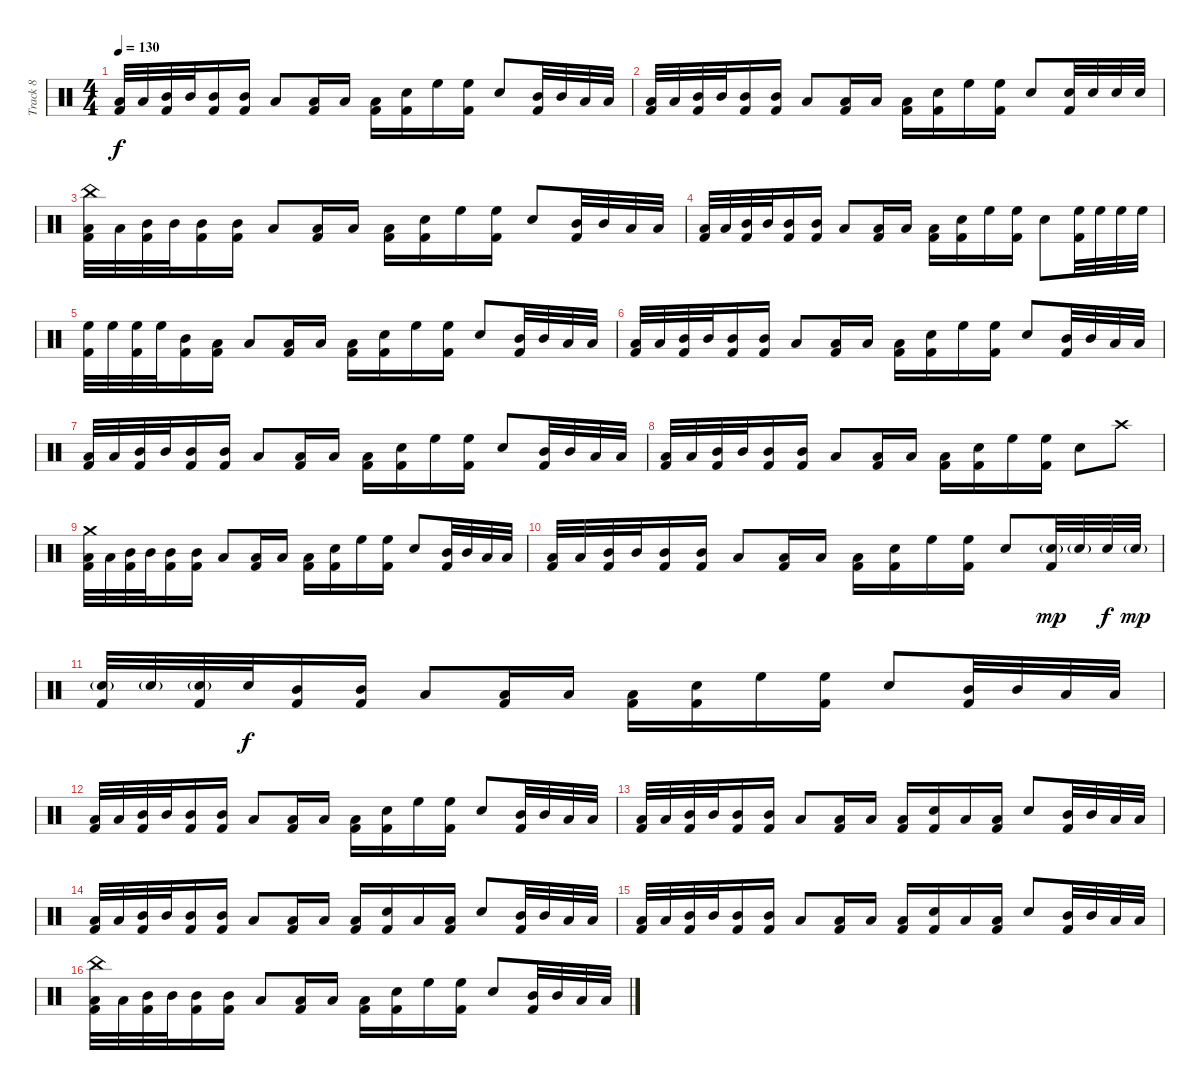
\track ("Track 8" "Track 8") {instrument percussion}
\staff {score}
\articulation defaults
\ts (4 4)
\tempo 130
\clef neutral
\ks c
("Low Tom (hit)" "Kick (hit) 2").32{dy f} "Low Tom (hit)".32 ("Mid Tom (hit)" "Kick (hit) 2").32 "Mid Tom (hit)".32 ("Mid Tom (hit)" "Kick (hit) 2").16 ("Mid Tom (hit)" "Kick (hit) 2").16 "Low Floor Tom (hit)".8 ("Low Floor Tom (hit)" "Kick (hit) 2").16 "Low Tom (hit)".16 ("Low Tom (hit)" "Kick (hit) 2").16 ("Snare (hit) 2" "Kick (hit) 2").16 "High Floor Tom (hit)".16 ("High Floor Tom (hit)" "Kick (hit) 2").16 "Snare (hit) 2".8 ("Mid Tom (hit)" "Kick (hit) 2").32 "Mid Tom (hit)".32 "Low Tom (hit)".32 "Low Tom (hit)".32 |
("Low Tom (hit)" "Kick (hit) 2").32 "Low Tom (hit)".32 ("Mid Tom (hit)" "Kick (hit) 2").32 "Mid Tom (hit)".32 ("Mid Tom (hit)" "Kick (hit) 2").16 ("Mid Tom (hit)" "Kick (hit) 2").16 "Low Floor Tom (hit)".8 ("Low Floor Tom (hit)" "Kick (hit) 2").16 "Low Tom (hit)".16 ("Low Tom (hit)" "Kick (hit) 2").16 ("Snare (hit) 2" "Kick (hit) 2").16 "High Floor Tom (hit)".16 ("High Floor Tom (hit)" "Kick (hit) 2").16 "Snare (hit) 2".8 ("Snare (hit) 2" "Kick (hit) 2").32 "Snare (hit) 2".32 "Snare (hit) 2".32 "Snare (hit) 2".32 |
("China (hit)" "Low Tom (hit)" "Kick (hit) 2").32 "Low Tom (hit)".32 ("Mid Tom (hit)" "Kick (hit) 2").32 "Mid Tom (hit)".32 ("Mid Tom (hit)" "Kick (hit) 2").16 ("Mid Tom (hit)" "Kick (hit) 2").16 "Low Floor Tom (hit)".8 ("Low Floor Tom (hit)" "Kick (hit) 2").16 "Low Tom (hit)".16 ("Low Tom (hit)" "Kick (hit) 2").16 ("Snare (hit) 2" "Kick (hit) 2").16 "High Floor Tom (hit)".16 ("High Floor Tom (hit)" "Kick (hit) 2").16 "Snare (hit) 2".8 ("Mid Tom (hit)" "Kick (hit) 2").32 "Mid Tom (hit)".32 "Low Tom (hit)".32 "Low Tom (hit)".32 |
("Low Tom (hit)" "Kick (hit) 2").32 "Low Tom (hit)".32 ("Mid Tom (hit)" "Kick (hit) 2").32 "Mid Tom (hit)".32 ("Mid Tom (hit)" "Kick (hit) 2").16 ("Mid Tom (hit)" "Kick (hit) 2").16 "Low Floor Tom (hit)".8 ("Low Floor Tom (hit)" "Kick (hit) 2").16 "Low Tom (hit)".16 ("Low Tom (hit)" "Kick (hit) 2").16 ("Snare (hit) 2" "Kick (hit) 2").16 "High Floor Tom (hit)".16 ("High Floor Tom (hit)" "Kick (hit) 2").16 "Snare (hit) 2".8 ("High Floor Tom (hit)" "Kick (hit) 2").32 "High Floor Tom (hit)".32 "High Floor Tom (hit)".32 "High Floor Tom (hit)".32 |
("High Floor Tom (hit)" "Kick (hit) 2").32 "High Floor Tom (hit)".32 ("High Floor Tom (hit)" "Kick (hit) 2").32 "High Floor Tom (hit)".32 ("Mid Tom (hit)" "Kick (hit) 2").16 ("Low Tom (hit)" "Kick (hit) 2").16 "Low Floor Tom (hit)".8 ("Low Floor Tom (hit)" "Kick (hit) 2").16 "Low Tom (hit)".16 ("Low Tom (hit)" "Kick (hit) 2").16 ("Snare (hit) 2" "Kick (hit) 2").16 "High Floor Tom (hit)".16 ("High Floor Tom (hit)" "Kick (hit) 2").16 "Snare (hit) 2".8 ("Mid Tom (hit)" "Kick (hit) 2").32 "Mid Tom (hit)".32 "Low Tom (hit)".32 "Low Tom (hit)".32 |
("Low Tom (hit)" "Kick (hit) 2").32 "Low Tom (hit)".32 ("Mid Tom (hit)" "Kick (hit) 2").32 "Mid Tom (hit)".32 ("Mid Tom (hit)" "Kick (hit) 2").16 ("Mid Tom (hit)" "Kick (hit) 2").16 "Low Floor Tom (hit)".8 ("Low Floor Tom (hit)" "Kick (hit) 2").16 "Low Tom (hit)".16 ("Low Tom (hit)" "Kick (hit) 2").16 ("Snare (hit) 2" "Kick (hit) 2").16 "High Floor Tom (hit)".16 ("High Floor Tom (hit)" "Kick (hit) 2").16 "Snare (hit) 2".8 ("Mid Tom (hit)" "Kick (hit) 2").32 "Mid Tom (hit)".32 "Low Tom (hit)".32 "Low Tom (hit)".32 |
("Low Tom (hit)" "Kick (hit) 2").32 "Low Tom (hit)".32 ("Mid Tom (hit)" "Kick (hit) 2").32 "Mid Tom (hit)".32 ("Mid Tom (hit)" "Kick (hit) 2").16 ("Mid Tom (hit)" "Kick (hit) 2").16 "Low Floor Tom (hit)".8 ("Low Floor Tom (hit)" "Kick (hit) 2").16 "Low Tom (hit)".16 ("Low Tom (hit)" "Kick (hit) 2").16 ("Snare (hit) 2" "Kick (hit) 2").16 "High Floor Tom (hit)".16 ("High Floor Tom (hit)" "Kick (hit) 2").16 "Snare (hit) 2".8 ("Mid Tom (hit)" "Kick (hit) 2").32 "Mid Tom (hit)".32 "Low Tom (hit)".32 "Low Tom (hit)".32 |
("Low Tom (hit)" "Kick (hit) 2").32 "Low Tom (hit)".32 ("Mid Tom (hit)" "Kick (hit) 2").32 "Mid Tom (hit)".32 ("Mid Tom (hit)" "Kick (hit) 2").16 ("Mid Tom (hit)" "Kick (hit) 2").16 "Low Floor Tom (hit)".8 ("Low Floor Tom (hit)" "Kick (hit) 2").16 "Low Tom (hit)".16 ("Low Tom (hit)" "Kick (hit) 2").16 ("Snare (hit) 2" "Kick (hit) 2").16 "High Floor Tom (hit)".16 ("High Floor Tom (hit)" "Kick (hit) 2").16 "Snare (hit) 2".8 "Crash high (hit)".8 |
("Crash medium (hit)" "Low Tom (hit)" "Kick (hit) 2").32 "Low Tom (hit)".32 ("Mid Tom (hit)" "Kick (hit) 2").32 "Mid Tom (hit)".32 ("Mid Tom (hit)" "Kick (hit) 2").16 ("Mid Tom (hit)" "Kick (hit) 2").16 "Low Floor Tom (hit)".8 ("Low Floor Tom (hit)" "Kick (hit) 2").16 "Low Tom (hit)".16 ("Low Tom (hit)" "Kick (hit) 2").16 ("Snare (hit) 2" "Kick (hit) 2").16 "High Floor Tom (hit)".16 ("High Floor Tom (hit)" "Kick (hit) 2").16 "Snare (hit) 2".8 ("Mid Tom (hit)" "Kick (hit) 2").32 "Mid Tom (hit)".32 "Low Tom (hit)".32 "Low Tom (hit)".32 |
("Low Tom (hit)" "Kick (hit) 2").32 "Low Tom (hit)".32 ("Mid Tom (hit)" "Kick (hit) 2").32 "Mid Tom (hit)".32 ("Mid Tom (hit)" "Kick (hit) 2").16 ("Mid Tom (hit)" "Kick (hit) 2").16 "Low Floor Tom (hit)".8 ("Low Floor Tom (hit)" "Kick (hit) 2").16 "Low Tom (hit)".16 ("Low Tom (hit)" "Kick (hit) 2").16 ("Snare (hit) 2" "Kick (hit) 2").16 "High Floor Tom (hit)".16 ("High Floor Tom (hit)" "Kick (hit) 2").16 "Snare (hit) 2".8 ("Snare (hit) 2"{g} "Kick (hit) 2").32{dy mp} "Snare (hit) 2"{g}.32 "Snare (hit) 2".32{dy f} "Snare (hit) 2"{g}.32{dy mp} |
("Snare (hit) 2"{g} "Kick (hit) 2").32 "Snare (hit) 2"{g}.32 ("Snare (hit) 2"{g} "Kick (hit) 2").32 "Snare (hit) 2".32{dy f} ("Mid Tom (hit)" "Kick (hit) 2").16 ("Mid Tom (hit)" "Kick (hit) 2").16 "Low Floor Tom (hit)".8 ("Low Floor Tom (hit)" "Kick (hit) 2").16 "Low Tom (hit)".16 ("Low Tom (hit)" "Kick (hit) 2").16 ("Snare (hit) 2" "Kick (hit) 2").16 "High Floor Tom (hit)".16 ("High Floor Tom (hit)" "Kick (hit) 2").16 "Snare (hit) 2".8 ("Mid Tom (hit)" "Kick (hit) 2").32 "Mid Tom (hit)".32 "Low Tom (hit)".32 "Low Tom (hit)".32 |
("Low Tom (hit)" "Kick (hit) 2").32 "Low Tom (hit)".32 ("Mid Tom (hit)" "Kick (hit) 2").32 "Mid Tom (hit)".32 ("Mid Tom (hit)" "Kick (hit) 2").16 ("Mid Tom (hit)" "Kick (hit) 2").16 "Low Floor Tom (hit)".8 ("Low Floor Tom (hit)" "Kick (hit) 2").16 "Low Tom (hit)".16 ("Low Tom (hit)" "Kick (hit) 2").16 ("Snare (hit) 2" "Kick (hit) 2").16 "High Floor Tom (hit)".16 ("High Floor Tom (hit)" "Kick (hit) 2").16 "Snare (hit) 2".8 ("Mid Tom (hit)" "Kick (hit) 2").32 "Mid Tom (hit)".32 "Low Tom (hit)".32 "Low Tom (hit)".32 |
("Low Tom (hit)" "Kick (hit) 2").32 "Low Tom (hit)".32 ("Mid Tom (hit)" "Kick (hit) 2").32 "Mid Tom (hit)".32 ("Mid Tom (hit)" "Kick (hit) 2").16 ("Mid Tom (hit)" "Kick (hit) 2").16 "Low Floor Tom (hit)".8 ("Low Floor Tom (hit)" "Kick (hit) 2").16 "Low Tom (hit)".16 ("Low Tom (hit)" "Kick (hit) 2").16 ("Snare (hit) 2" "Kick (hit) 2").16 "Low Floor Tom (hit)".16 ("Low Tom (hit)" "Kick (hit) 2").16 "Snare (hit) 2".8 ("Mid Tom (hit)" "Kick (hit) 2").32 "Mid Tom (hit)".32 "Low Tom (hit)".32 "Low Tom (hit)".32 |
("Low Tom (hit)" "Kick (hit) 2").32 "Low Tom (hit)".32 ("Mid Tom (hit)" "Kick (hit) 2").32 "Mid Tom (hit)".32 ("Mid Tom (hit)" "Kick (hit) 2").16 ("Mid Tom (hit)" "Kick (hit) 2").16 "Low Floor Tom (hit)".8 ("Low Floor Tom (hit)" "Kick (hit) 2").16 "Low Tom (hit)".16 ("Low Tom (hit)" "Kick (hit) 2").16 ("Snare (hit) 2" "Kick (hit) 2").16 "Low Floor Tom (hit)".16 ("Low Tom (hit)" "Kick (hit) 2").16 "Snare (hit) 2".8 ("Mid Tom (hit)" "Kick (hit) 2").32 "Mid Tom (hit)".32 "Low Tom (hit)".32 "Low Tom (hit)".32 |
("Low Tom (hit)" "Kick (hit) 2").32 "Low Tom (hit)".32 ("Mid Tom (hit)" "Kick (hit) 2").32 "Mid Tom (hit)".32 ("Mid Tom (hit)" "Kick (hit) 2").16 ("Mid Tom (hit)" "Kick (hit) 2").16 "Low Floor Tom (hit)".8 ("Low Floor Tom (hit)" "Kick (hit) 2").16 "Low Tom (hit)".16 ("Low Tom (hit)" "Kick (hit) 2").16 ("Snare (hit) 2" "Kick (hit) 2").16 "Low Floor Tom (hit)".16 ("Low Tom (hit)" "Kick (hit) 2").16 "Snare (hit) 2".8 ("Mid Tom (hit)" "Kick (hit) 2").32 "Mid Tom (hit)".32 "Low Tom (hit)".32 "Low Tom (hit)".32 |
("China (hit)" "Low Tom (hit)" "Kick (hit) 2").32 "Low Tom (hit)".32 ("Mid Tom (hit)" "Kick (hit) 2").32 "Mid Tom (hit)".32 ("Mid Tom (hit)" "Kick (hit) 2").16 ("Mid Tom (hit)" "Kick (hit) 2").16 "Low Floor Tom (hit)".8 ("Low Floor Tom (hit)" "Kick (hit) 2").16 "Low Tom (hit)".16 ("Low Tom (hit)" "Kick (hit) 2").16 ("Snare (hit) 2" "Kick (hit) 2").16 "High Floor Tom (hit)".16 ("High Floor Tom (hit)" "Kick (hit) 2").16 "Snare (hit) 2".8 ("Mid Tom (hit)" "Kick (hit) 2").32 "Mid Tom (hit)".32 "Low Tom (hit)".32 "Low Tom (hit)".32
